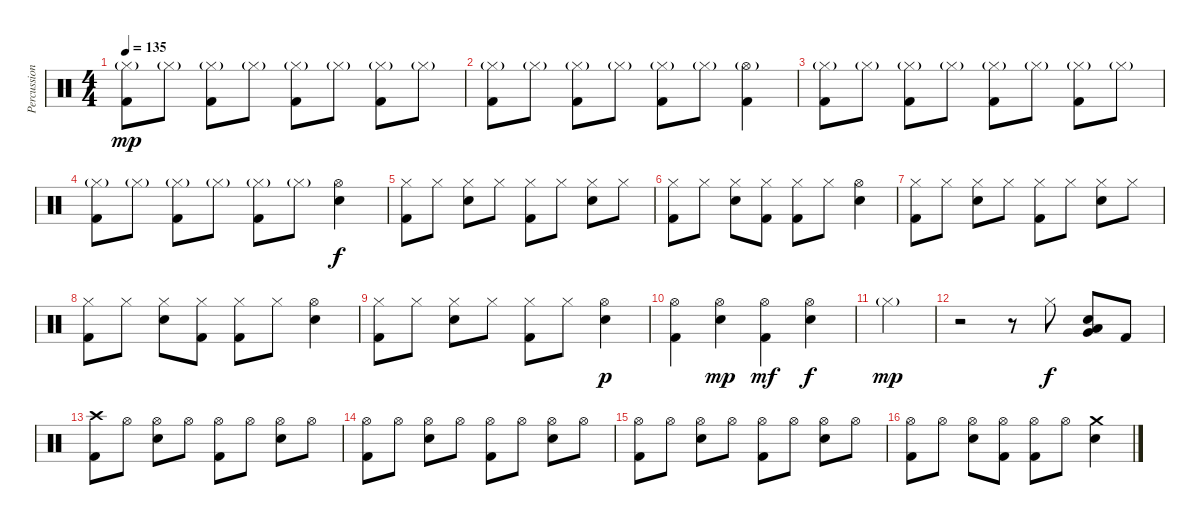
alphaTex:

\track ("Percussion" "Percussion") {instrument percussion}
\staff {score}
\articulation defaults
\ts (4 4)
\tempo 135
\clef neutral
\ks c
("Hi-Hat (closed)"{g} "Kick (hit) 2").8{dy mp} "Hi-Hat (closed)"{g}.8 ("Hi-Hat (closed)"{g} "Kick (hit) 2").8 "Hi-Hat (closed)"{g}.8 ("Hi-Hat (closed)"{g} "Kick (hit) 2").8 "Hi-Hat (closed)"{g}.8 ("Hi-Hat (closed)"{g} "Kick (hit) 2").8 "Hi-Hat (closed)"{g}.8 |
("Hi-Hat (closed)"{g} "Kick (hit) 2").8 "Hi-Hat (closed)"{g}.8 ("Hi-Hat (closed)"{g} "Kick (hit) 2").8 "Hi-Hat (closed)"{g}.8 ("Hi-Hat (closed)"{g} "Kick (hit) 2").8 "Hi-Hat (closed)"{g}.8 ("Hi-Hat (open)"{g} "Kick (hit) 2").4 |
("Hi-Hat (closed)"{g} "Kick (hit) 2").8 "Hi-Hat (closed)"{g}.8 ("Hi-Hat (closed)"{g} "Kick (hit) 2").8 "Hi-Hat (closed)"{g}.8 ("Hi-Hat (closed)"{g} "Kick (hit) 2").8 "Hi-Hat (closed)"{g}.8 ("Hi-Hat (closed)"{g} "Kick (hit) 2").8 "Hi-Hat (closed)"{g}.8 |
("Hi-Hat (closed)"{g} "Kick (hit) 2").8 "Hi-Hat (closed)"{g}.8 ("Hi-Hat (closed)"{g} "Kick (hit) 2").8 "Hi-Hat (closed)"{g}.8 ("Hi-Hat (closed)"{g} "Kick (hit) 2").8 "Hi-Hat (closed)"{g}.8 ("Hi-Hat (open)" "Electric Snare (hit)").4{dy f} |
("Hi-Hat (closed)" "Kick (hit) 2").8 "Hi-Hat (closed)".8 ("Hi-Hat (closed)" "Electric Snare (hit)").8 "Hi-Hat (closed)".8 ("Hi-Hat (closed)" "Kick (hit) 2").8 "Hi-Hat (closed)".8 ("Hi-Hat (closed)" "Electric Snare (hit)").8 "Hi-Hat (closed)".8 |
("Hi-Hat (closed)" "Kick (hit) 2").8 "Hi-Hat (closed)".8 ("Hi-Hat (closed)" "Electric Snare (hit)").8 ("Hi-Hat (closed)" "Kick (hit) 2").8 ("Hi-Hat (closed)" "Kick (hit) 2").8 "Hi-Hat (closed)".8 ("Hi-Hat (open)" "Electric Snare (hit)").4 |
("Hi-Hat (closed)" "Kick (hit) 2").8 "Hi-Hat (closed)".8 ("Hi-Hat (closed)" "Electric Snare (hit)").8 "Hi-Hat (closed)".8 ("Hi-Hat (closed)" "Kick (hit) 2").8 "Hi-Hat (closed)".8 ("Hi-Hat (closed)" "Electric Snare (hit)").8 "Hi-Hat (closed)".8 |
("Hi-Hat (closed)" "Kick (hit) 2").8 "Hi-Hat (closed)".8 ("Hi-Hat (closed)" "Electric Snare (hit)").8 ("Hi-Hat (closed)" "Kick (hit) 2").8 ("Hi-Hat (closed)" "Kick (hit) 2").8 "Hi-Hat (closed)".8 ("Hi-Hat (open)" "Electric Snare (hit)").4 |
("Hi-Hat (closed)" "Kick (hit) 2").8 "Hi-Hat (closed)".8 ("Hi-Hat (closed)" "Electric Snare (hit)").8 "Hi-Hat (closed)".8 ("Hi-Hat (closed)" "Kick (hit) 2").8 "Hi-Hat (closed)".8 ("Hi-Hat (open)" "Electric Snare (hit)").4{dy p} |
("Hi-Hat (open)" "Kick (hit) 2").4 ("Hi-Hat (open)" "Electric Snare (hit)").4{dy mp} ("Hi-Hat (open)" "Kick (hit) 2").4{dy mf} ("Hi-Hat (open)" "Electric Snare (hit)").4{dy f} |
"Hi-Hat (closed)"{g}.4{dy mp} |
r.2 r.8 "Hi-Hat (closed)".8{dy f} ("Electric Snare (hit)" "Very Low Tom (hit)" "Low Tom (hit)").8 "Kick (hit) 2".8 |
("Crash high (hit)" "Kick (hit) 2").8 "Hi-Hat (open)".8 ("Hi-Hat (open)" "Electric Snare (hit)").8 "Hi-Hat (open)".8 ("Hi-Hat (open)" "Kick (hit) 2").8 "Hi-Hat (open)".8 ("Hi-Hat (open)" "Electric Snare (hit)").8 "Hi-Hat (open)".8 |
("Hi-Hat (open)" "Kick (hit) 2").8 "Hi-Hat (open)".8 ("Hi-Hat (open)" "Electric Snare (hit)").8 "Hi-Hat (open)".8 ("Hi-Hat (open)" "Kick (hit) 2").8 "Hi-Hat (open)".8 ("Hi-Hat (open)" "Electric Snare (hit)").8 "Hi-Hat (open)".8 |
("Hi-Hat (open)" "Kick (hit) 2").8 "Hi-Hat (open)".8 ("Hi-Hat (open)" "Electric Snare (hit)").8 "Hi-Hat (open)".8 ("Hi-Hat (open)" "Kick (hit) 2").8 "Hi-Hat (open)".8 ("Hi-Hat (open)" "Electric Snare (hit)").8 "Hi-Hat (open)".8 |
("Hi-Hat (open)" "Kick (hit) 2").8 "Hi-Hat (open)".8 ("Hi-Hat (open)" "Electric Snare (hit)").8 ("Hi-Hat (open)" "Kick (hit) 2").8 ("Hi-Hat (open)" "Kick (hit) 2").8 "Hi-Hat (open)".8 ("Crash medium (hit)" "Electric Snare (hit)").4
